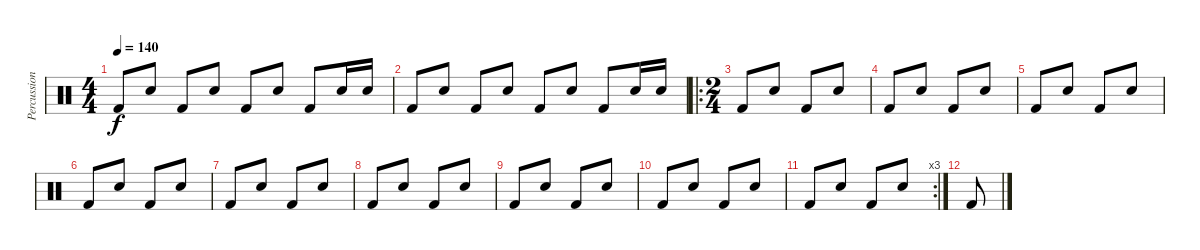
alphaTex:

\track ("Percussions" "Percussion") {instrument percussion}
\staff {score}
\articulation defaults
\ts (4 4)
\tempo 140
\clef neutral
\ks c "Kick (hit) 2".8{dy f} "Snare (hit) 2".8 "Kick (hit) 2".8 "Snare (hit) 2".8 "Kick (hit) 2".8 "Snare (hit) 2".8 "Kick (hit) 2".8 "Snare (hit) 2".16 "Snare (hit) 2".16
|
"Kick (hit) 2".8 "Snare (hit) 2".8 "Kick (hit) 2".8 "Snare (hit) 2".8 "Kick (hit) 2".8 "Snare (hit) 2".8 "Kick (hit) 2".8 "Snare (hit) 2".16 "Snare (hit) 2".16 |
\ro
\ts (2 4)
"Kick (hit) 2".8 "Snare (hit) 2".8 "Kick (hit) 2".8 "Snare (hit) 2".8 |
"Kick (hit) 2".8 "Snare (hit) 2".8 "Kick (hit) 2".8 "Snare (hit) 2".8 |
"Kick (hit) 2".8 "Snare (hit) 2".8 "Kick (hit) 2".8 "Snare (hit) 2".8 |
"Kick (hit) 2".8 "Snare (hit) 2".8 "Kick (hit) 2".8 "Snare (hit) 2".8 |
"Kick (hit) 2".8 "Snare (hit) 2".8 "Kick (hit) 2".8 "Snare (hit) 2".8 |
"Kick (hit) 2".8 "Snare (hit) 2".8 "Kick (hit) 2".8 "Snare (hit) 2".8 |
"Kick (hit) 2".8 "Snare (hit) 2".8 "Kick (hit) 2".8 "Snare (hit) 2".8 |
"Kick (hit) 2".8 "Snare (hit) 2".8 "Kick (hit) 2".8 "Snare (hit) 2".8 |
\rc 3 "Kick (hit) 2".8 "Snare (hit) 2".8 "Kick (hit) 2".8 "Snare (hit) 2".8
|
"Kick (hit) 2".8
